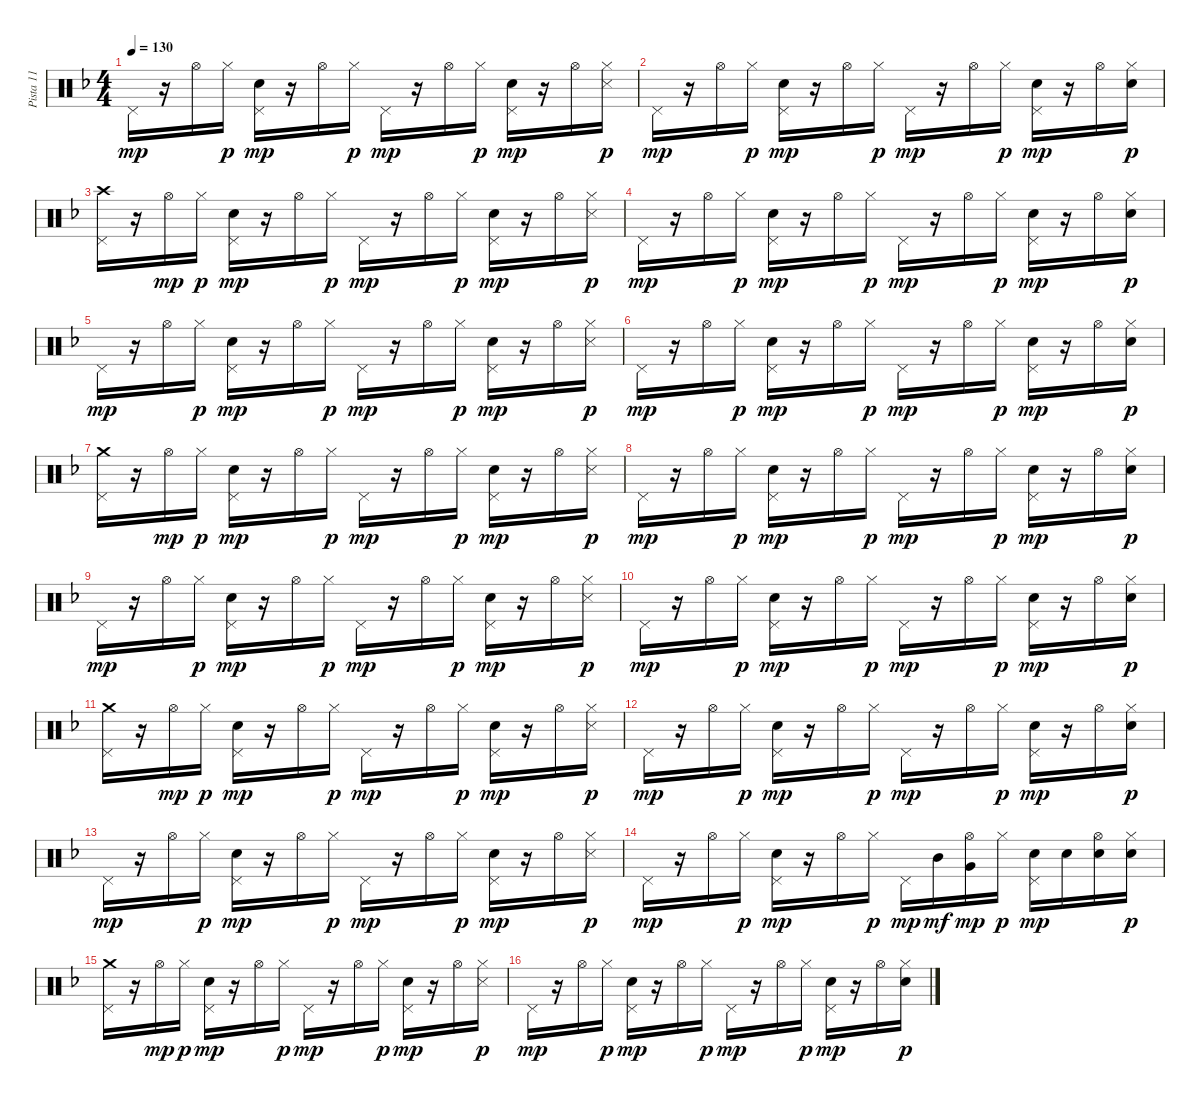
\track ("Pista 11" "Pista 11") {instrument percussion}
\staff {score}
\articulation defaults
\ts (4 4)
\tempo 130
\clef neutral
\ks dminor "Pedal Hi-Hat (hit)".16{dy mp}
r.16 "Hi-Hat (open)".16 "Hi-Hat (closed)".16{dy p} ("Snare (hit) 2" "Pedal Hi-Hat (hit)").16{dy mp} r.16 "Hi-Hat (open)".16 "Hi-Hat (closed)".16{dy p} "Pedal Hi-Hat (hit)".16{dy mp} r.16 "Hi-Hat (open)".16 "Hi-Hat (closed)".16{dy p} ("Snare (hit) 2" "Pedal Hi-Hat (hit)").16{dy mp} r.16 "Hi-Hat (open)".16 ("Snare (side stick) 3" "Hi-Hat (closed)").16{dy p} |
"Pedal Hi-Hat (hit)".16{dy mp} r.16 "Hi-Hat (open)".16 "Hi-Hat (closed)".16{dy p} ("Snare (hit) 2" "Pedal Hi-Hat (hit)").16{dy mp} r.16 "Hi-Hat (open)".16 "Hi-Hat (closed)".16{dy p} "Pedal Hi-Hat (hit)".16{dy mp} r.16 "Hi-Hat (open)".16 "Hi-Hat (closed)".16{dy p} ("Snare (hit) 2" "Pedal Hi-Hat (hit)").16{dy mp} r.16 "Hi-Hat (open)".16 ("Electric Snare (hit)" "Hi-Hat (closed)").16{dy p} |
("Pedal Hi-Hat (hit)" "Crash high (hit)").16 r.16 "Hi-Hat (open)".16{dy mp} "Hi-Hat (closed)".16{dy p} ("Snare (hit) 2" "Pedal Hi-Hat (hit)").16{dy mp} r.16 "Hi-Hat (open)".16 "Hi-Hat (closed)".16{dy p} "Pedal Hi-Hat (hit)".16{dy mp} r.16 "Hi-Hat (open)".16 "Hi-Hat (closed)".16{dy p} ("Snare (hit) 2" "Pedal Hi-Hat (hit)").16{dy mp} r.16 "Hi-Hat (open)".16 ("Snare (side stick) 3" "Hi-Hat (closed)").16{dy p} |
"Pedal Hi-Hat (hit)".16{dy mp} r.16 "Hi-Hat (open)".16 "Hi-Hat (closed)".16{dy p} ("Snare (hit) 2" "Pedal Hi-Hat (hit)").16{dy mp} r.16 "Hi-Hat (open)".16 "Hi-Hat (closed)".16{dy p} "Pedal Hi-Hat (hit)".16{dy mp} r.16 "Hi-Hat (open)".16 "Hi-Hat (closed)".16{dy p} ("Snare (hit) 2" "Pedal Hi-Hat (hit)").16{dy mp} r.16 "Hi-Hat (open)".16 ("Electric Snare (hit)" "Hi-Hat (closed)").16{dy p} |
"Pedal Hi-Hat (hit)".16{dy mp} r.16 "Hi-Hat (open)".16 "Hi-Hat (closed)".16{dy p} ("Snare (hit) 2" "Pedal Hi-Hat (hit)").16{dy mp} r.16 "Hi-Hat (open)".16 "Hi-Hat (closed)".16{dy p} "Pedal Hi-Hat (hit)".16{dy mp} r.16 "Hi-Hat (open)".16 "Hi-Hat (closed)".16{dy p} ("Snare (hit) 2" "Pedal Hi-Hat (hit)").16{dy mp} r.16 "Hi-Hat (open)".16 ("Snare (side stick) 3" "Hi-Hat (closed)").16{dy p} |
"Pedal Hi-Hat (hit)".16{dy mp} r.16 "Hi-Hat (open)".16 "Hi-Hat (closed)".16{dy p} ("Snare (hit) 2" "Pedal Hi-Hat (hit)").16{dy mp} r.16 "Hi-Hat (open)".16 "Hi-Hat (closed)".16{dy p} "Pedal Hi-Hat (hit)".16{dy mp} r.16 "Hi-Hat (open)".16 "Hi-Hat (closed)".16{dy p} ("Snare (hit) 2" "Pedal Hi-Hat (hit)").16{dy mp} r.16 "Hi-Hat (open)".16 ("Electric Snare (hit)" "Hi-Hat (closed)").16{dy p} |
("Pedal Hi-Hat (hit)" "Crash medium (hit)").16 r.16 "Hi-Hat (open)".16{dy mp} "Hi-Hat (closed)".16{dy p} ("Snare (hit) 2" "Pedal Hi-Hat (hit)").16{dy mp} r.16 "Hi-Hat (open)".16 "Hi-Hat (closed)".16{dy p} "Pedal Hi-Hat (hit)".16{dy mp} r.16 "Hi-Hat (open)".16 "Hi-Hat (closed)".16{dy p} ("Snare (hit) 2" "Pedal Hi-Hat (hit)").16{dy mp} r.16 "Hi-Hat (open)".16 ("Snare (side stick) 3" "Hi-Hat (closed)").16{dy p} |
"Pedal Hi-Hat (hit)".16{dy mp} r.16 "Hi-Hat (open)".16 "Hi-Hat (closed)".16{dy p} ("Snare (hit) 2" "Pedal Hi-Hat (hit)").16{dy mp} r.16 "Hi-Hat (open)".16 "Hi-Hat (closed)".16{dy p} "Pedal Hi-Hat (hit)".16{dy mp} r.16 "Hi-Hat (open)".16 "Hi-Hat (closed)".16{dy p} ("Snare (hit) 2" "Pedal Hi-Hat (hit)").16{dy mp} r.16 "Hi-Hat (open)".16 ("Electric Snare (hit)" "Hi-Hat (closed)").16{dy p} |
"Pedal Hi-Hat (hit)".16{dy mp} r.16 "Hi-Hat (open)".16 "Hi-Hat (closed)".16{dy p} ("Snare (hit) 2" "Pedal Hi-Hat (hit)").16{dy mp} r.16 "Hi-Hat (open)".16 "Hi-Hat (closed)".16{dy p} "Pedal Hi-Hat (hit)".16{dy mp} r.16 "Hi-Hat (open)".16 "Hi-Hat (closed)".16{dy p} ("Snare (hit) 2" "Pedal Hi-Hat (hit)").16{dy mp} r.16 "Hi-Hat (open)".16 ("Snare (side stick) 3" "Hi-Hat (closed)").16{dy p} |
"Pedal Hi-Hat (hit)".16{dy mp} r.16 "Hi-Hat (open)".16 "Hi-Hat (closed)".16{dy p} ("Snare (hit) 2" "Pedal Hi-Hat (hit)").16{dy mp} r.16 "Hi-Hat (open)".16 "Hi-Hat (closed)".16{dy p} "Pedal Hi-Hat (hit)".16{dy mp} r.16 "Hi-Hat (open)".16 "Hi-Hat (closed)".16{dy p} ("Snare (hit) 2" "Pedal Hi-Hat (hit)").16{dy mp} r.16 "Hi-Hat (open)".16 ("Electric Snare (hit)" "Hi-Hat (closed)").16{dy p} |
("Pedal Hi-Hat (hit)" "Crash medium (hit)").16 r.16 "Hi-Hat (open)".16{dy mp} "Hi-Hat (closed)".16{dy p} ("Snare (hit) 2" "Pedal Hi-Hat (hit)").16{dy mp} r.16 "Hi-Hat (open)".16 "Hi-Hat (closed)".16{dy p} "Pedal Hi-Hat (hit)".16{dy mp} r.16 "Hi-Hat (open)".16 "Hi-Hat (closed)".16{dy p} ("Snare (hit) 2" "Pedal Hi-Hat (hit)").16{dy mp} r.16 "Hi-Hat (open)".16 ("Snare (side stick) 3" "Hi-Hat (closed)").16{dy p} |
"Pedal Hi-Hat (hit)".16{dy mp} r.16 "Hi-Hat (open)".16 "Hi-Hat (closed)".16{dy p} ("Snare (hit) 2" "Pedal Hi-Hat (hit)").16{dy mp} r.16 "Hi-Hat (open)".16 "Hi-Hat (closed)".16{dy p} "Pedal Hi-Hat (hit)".16{dy mp} r.16 "Hi-Hat (open)".16 "Hi-Hat (closed)".16{dy p} ("Snare (hit) 2" "Pedal Hi-Hat (hit)").16{dy mp} r.16 "Hi-Hat (open)".16 ("Electric Snare (hit)" "Hi-Hat (closed)").16{dy p} |
"Pedal Hi-Hat (hit)".16{dy mp} r.16 "Hi-Hat (open)".16 "Hi-Hat (closed)".16{dy p} ("Snare (hit) 2" "Pedal Hi-Hat (hit)").16{dy mp} r.16 "Hi-Hat (open)".16 "Hi-Hat (closed)".16{dy p} "Pedal Hi-Hat (hit)".16{dy mp} r.16 "Hi-Hat (open)".16 "Hi-Hat (closed)".16{dy p} ("Snare (hit) 2" "Pedal Hi-Hat (hit)").16{dy mp} r.16 "Hi-Hat (open)".16 ("Snare (side stick) 3" "Hi-Hat (closed)").16{dy p} |
"Pedal Hi-Hat (hit)".16{dy mp} r.16 "Hi-Hat (open)".16 "Hi-Hat (closed)".16{dy p} ("Snare (hit) 2" "Pedal Hi-Hat (hit)").16{dy mp} r.16 "Hi-Hat (open)".16 "Hi-Hat (closed)".16{dy p} "Pedal Hi-Hat (hit)".16{dy mp} "Mid Tom (hit)".16{dy mf} ("Very Low Tom (hit)" "Hi-Hat (open)").16{dy mp} "Hi-Hat (closed)".16{dy p} ("Snare (hit) 2" "Pedal Hi-Hat (hit)").16{dy mp} "Snare (hit) 2".16 ("Snare (hit) 2" "Hi-Hat (open)").16 ("Snare (hit) 2" "Hi-Hat (closed)").16{dy p} |
("Pedal Hi-Hat (hit)" "Crash medium (hit)").16 r.16 "Hi-Hat (open)".16{dy mp} "Hi-Hat (closed)".16{dy p} ("Snare (hit) 2" "Pedal Hi-Hat (hit)").16{dy mp} r.16 "Hi-Hat (open)".16 "Hi-Hat (closed)".16{dy p} "Pedal Hi-Hat (hit)".16{dy mp} r.16 "Hi-Hat (open)".16 "Hi-Hat (closed)".16{dy p} ("Snare (hit) 2" "Pedal Hi-Hat (hit)").16{dy mp} r.16 "Hi-Hat (open)".16 ("Snare (side stick) 3" "Hi-Hat (closed)").16{dy p} |
"Pedal Hi-Hat (hit)".16{dy mp} r.16 "Hi-Hat (open)".16 "Hi-Hat (closed)".16{dy p} ("Snare (hit) 2" "Pedal Hi-Hat (hit)").16{dy mp} r.16 "Hi-Hat (open)".16 "Hi-Hat (closed)".16{dy p} "Pedal Hi-Hat (hit)".16{dy mp} r.16 "Hi-Hat (open)".16 "Hi-Hat (closed)".16{dy p} ("Snare (hit) 2" "Pedal Hi-Hat (hit)").16{dy mp} r.16 "Hi-Hat (open)".16 ("Electric Snare (hit)" "Hi-Hat (closed)").16{dy p}
